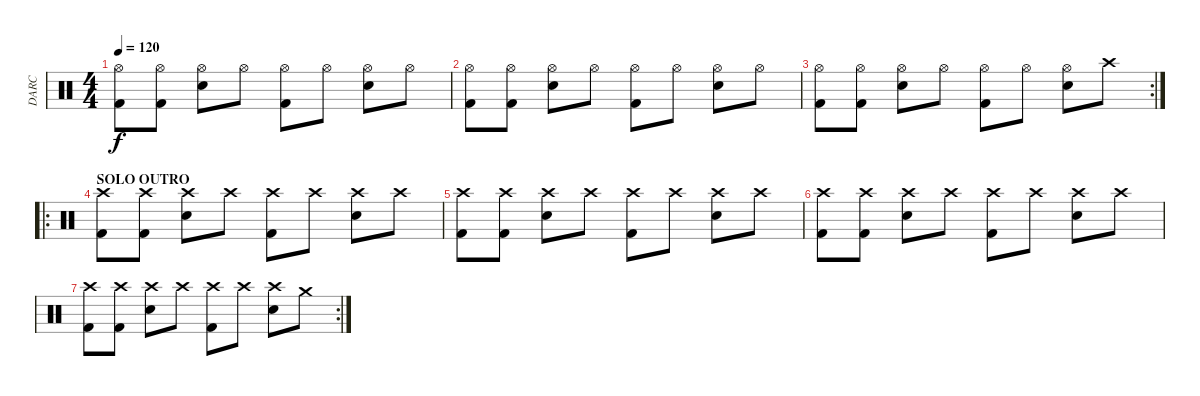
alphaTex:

\track ("DARC" "DARC") {instrument percussion}
\staff {score}
\articulation defaults
\ts (4 4)
\tempo 120
\clef neutral
\ks c
("Hi-Hat (open)" "Kick (hit) 2").8{dy f} ("Hi-Hat (open)" "Kick (hit) 2").8 ("Hi-Hat (open)" "Snare (hit) 2").8 "Hi-Hat (open)".8 ("Hi-Hat (open)" "Kick (hit) 2").8 "Hi-Hat (open)".8 ("Hi-Hat (open)" "Snare (hit) 2").8 "Hi-Hat (open)".8 |
("Hi-Hat (open)" "Kick (hit) 2").8 ("Hi-Hat (open)" "Kick (hit) 2").8 ("Hi-Hat (open)" "Snare (hit) 2").8 "Hi-Hat (open)".8 ("Hi-Hat (open)" "Kick (hit) 2").8 "Hi-Hat (open)".8 ("Hi-Hat (open)" "Snare (hit) 2").8 "Hi-Hat (open)".8 |
\rc 2
("Hi-Hat (open)" "Kick (hit) 2").8 ("Hi-Hat (open)" "Kick (hit) 2").8 ("Hi-Hat (open)" "Snare (hit) 2").8 "Hi-Hat (open)".8 ("Hi-Hat (open)" "Kick (hit) 2").8 "Hi-Hat (open)".8 ("Hi-Hat (open)" "Snare (hit) 2").8 "Crash high (hit)".8 |
\ro
\section ("" "SOLO OUTRO")
("Crash high (hit)" "Kick (hit) 2").8 ("Crash high (hit)" "Kick (hit) 2").8 ("Crash high (hit)" "Snare (hit) 2").8 "Crash high (hit)".8 ("Crash high (hit)" "Kick (hit) 2").8 "Crash high (hit)".8 ("Crash high (hit)" "Snare (hit) 2").8 "Crash high (hit)".8 |
("Crash high (hit)" "Kick (hit) 2").8 ("Crash high (hit)" "Kick (hit) 2").8 ("Crash high (hit)" "Snare (hit) 2").8 "Crash high (hit)".8 ("Crash high (hit)" "Kick (hit) 2").8 "Crash high (hit)".8 ("Crash high (hit)" "Snare (hit) 2").8 "Crash high (hit)".8 |
("Crash high (hit)" "Kick (hit) 2").8 ("Crash high (hit)" "Kick (hit) 2").8 ("Crash high (hit)" "Snare (hit) 2").8 "Crash high (hit)".8 ("Crash high (hit)" "Kick (hit) 2").8 "Crash high (hit)".8 ("Crash high (hit)" "Snare (hit) 2").8 "Crash high (hit)".8 |
\rc 2
("Crash high (hit)" "Kick (hit) 2").8 ("Crash high (hit)" "Kick (hit) 2").8 ("Crash high (hit)" "Snare (hit) 2").8 "Crash high (hit)".8 ("Crash high (hit)" "Kick (hit) 2").8 "Crash high (hit)".8 ("Crash high (hit)" "Snare (hit) 2").8 "Crash medium (hit)".8
